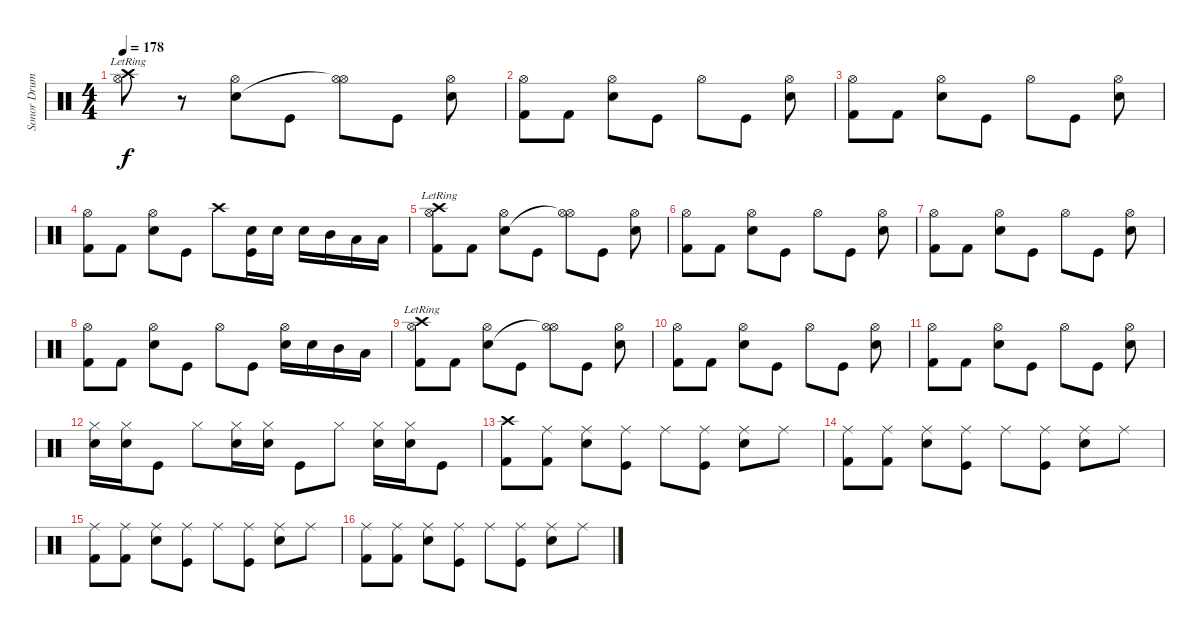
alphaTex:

\track ("Sonor Drum Kit " "Sonor Drum") {instrument percussion}
\staff {score}
\articulation defaults
\ts (4 4)
\tempo 178
\clef neutral
\ks c
("Crash high (hit)" "Hi-Hat (open)"{lr}).8{dy f} r.8 ("Hi-Hat (open)" "Electric Snare (hit)").8 "Kick (hit)".8 ("Hi-Hat (open)" "Hi-Hat (open)"{t}).8 "Kick (hit)".8 ("Hi-Hat (open)" "Electric Snare (hit)").8 |
("Hi-Hat (open)" "Kick (hit) 2").8 "Kick (hit) 2".8 ("Hi-Hat (open)" "Electric Snare (hit)").8 "Kick (hit)".8 "Hi-Hat (open)".8 "Kick (hit)".8 ("Hi-Hat (open)" "Electric Snare (hit)").8 |
("Hi-Hat (open)" "Kick (hit) 2").8 "Kick (hit) 2".8 ("Hi-Hat (open)" "Electric Snare (hit)").8 "Kick (hit)".8 "Hi-Hat (open)".8 "Kick (hit)".8 ("Hi-Hat (open)" "Electric Snare (hit)").8 |
("Hi-Hat (open)" "Kick (hit) 2").8 "Kick (hit) 2".8 ("Hi-Hat (open)" "Electric Snare (hit)").8 "Kick (hit)".8 "Crash high (hit)".8 ("Electric Snare (hit)" "Kick (hit)").16 "Electric Snare (hit)".16 "Electric Snare (hit)".16 "Mid Tom (hit)".16 "Low Tom (hit)".16 "Low Floor Tom (hit)".16 |
("Crash high (hit)" "Hi-Hat (open)"{lr} "Kick (hit) 2").8 "Kick (hit) 2".8 ("Hi-Hat (open)" "Electric Snare (hit)").8 "Kick (hit)".8 ("Hi-Hat (open)" "Hi-Hat (open)"{t}).8 "Kick (hit)".8 ("Hi-Hat (open)" "Electric Snare (hit)").8 |
("Hi-Hat (open)" "Kick (hit) 2").8 "Kick (hit) 2".8 ("Hi-Hat (open)" "Electric Snare (hit)").8 "Kick (hit)".8 "Hi-Hat (open)".8 "Kick (hit)".8 ("Hi-Hat (open)" "Electric Snare (hit)").8 |
("Hi-Hat (open)" "Kick (hit) 2").8 "Kick (hit) 2".8 ("Hi-Hat (open)" "Electric Snare (hit)").8 "Kick (hit)".8 "Hi-Hat (open)".8 "Kick (hit)".8 ("Hi-Hat (open)" "Electric Snare (hit)").8 |
("Hi-Hat (open)" "Kick (hit) 2").8 "Kick (hit) 2".8 ("Hi-Hat (open)" "Electric Snare (hit)").8 "Kick (hit)".8 "Hi-Hat (open)".8 "Kick (hit)".8 ("Hi-Hat (open)" "Electric Snare (hit)").16 "Electric Snare (hit)".16 "Mid Tom (hit)".16 "Low Tom (hit)".16 |
("Crash high (hit)" "Hi-Hat (open)"{lr} "Kick (hit) 2").8 "Kick (hit) 2".8 ("Hi-Hat (open)" "Electric Snare (hit)").8 "Kick (hit)".8 ("Hi-Hat (open)" "Hi-Hat (open)"{t}).8 "Kick (hit)".8 ("Hi-Hat (open)" "Electric Snare (hit)").8 |
("Hi-Hat (open)" "Kick (hit) 2").8 "Kick (hit) 2".8 ("Hi-Hat (open)" "Electric Snare (hit)").8 "Kick (hit)".8 "Hi-Hat (open)".8 "Kick (hit)".8 ("Hi-Hat (open)" "Electric Snare (hit)").8 |
("Hi-Hat (open)" "Kick (hit) 2").8 "Kick (hit) 2".8 ("Hi-Hat (open)" "Electric Snare (hit)").8 "Kick (hit)".8 "Hi-Hat (open)".8 "Kick (hit)".8 ("Hi-Hat (open)" "Electric Snare (hit)").8 |
("Hi-Hat (closed)" "Electric Snare (hit)").16 ("Hi-Hat (closed)" "Electric Snare (hit)").16 "Kick (hit)".8 "Hi-Hat (closed)".8 ("Hi-Hat (closed)" "Electric Snare (hit)").16 ("Hi-Hat (closed)" "Electric Snare (hit)").16 "Kick (hit)".8 "Hi-Hat (closed)".8 ("Hi-Hat (closed)" "Electric Snare (hit)").16 ("Hi-Hat (closed)" "Electric Snare (hit)").16 "Kick (hit)".8 |
("Crash high (hit)" "Kick (hit) 2").8 ("Ride (middle)" "Kick (hit) 2").8 ("Ride (middle)" "Electric Snare (hit)").8 ("Ride (middle)" "Kick (hit)").8 "Ride (middle)".8 ("Ride (middle)" "Kick (hit)").8 ("Ride (middle)" "Electric Snare (hit)").8 "Ride (middle)".8 |
("Ride (middle)" "Kick (hit) 2").8 ("Ride (middle)" "Kick (hit) 2").8 ("Ride (middle)" "Electric Snare (hit)").8 ("Ride (middle)" "Kick (hit)").8 "Ride (middle)".8 ("Ride (middle)" "Kick (hit)").8 ("Ride (middle)" "Electric Snare (hit)").8 "Ride (middle)".8 |
("Ride (middle)" "Kick (hit) 2").8 ("Ride (middle)" "Kick (hit) 2").8 ("Ride (middle)" "Electric Snare (hit)").8 ("Ride (middle)" "Kick (hit)").8 "Ride (middle)".8 ("Ride (middle)" "Kick (hit)").8 ("Ride (middle)" "Electric Snare (hit)").8 "Ride (middle)".8 |
("Ride (middle)" "Kick (hit) 2").8 ("Ride (middle)" "Kick (hit) 2").8 ("Ride (middle)" "Electric Snare (hit)").8 ("Ride (middle)" "Kick (hit)").8 "Ride (middle)".8 ("Ride (middle)" "Kick (hit)").8 ("Ride (middle)" "Electric Snare (hit)").8 "Ride (middle)".8
